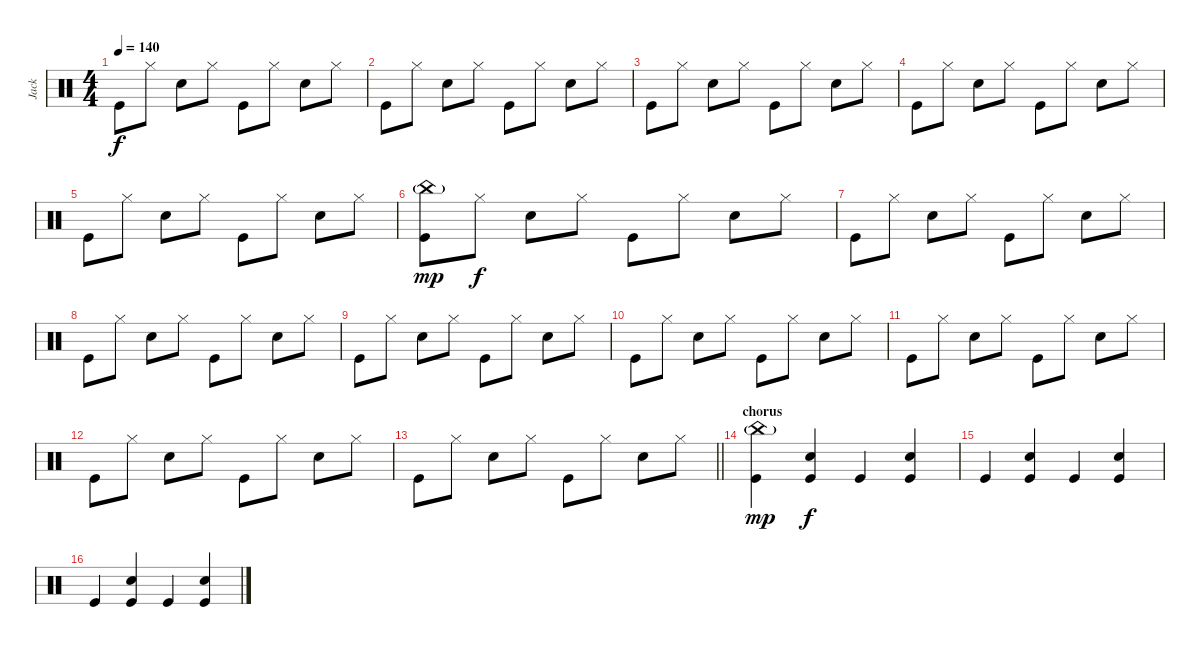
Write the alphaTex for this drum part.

\track ("Jack" "Jack") {instrument percussion}
\staff {score}
\articulation defaults
\ts (4 4)
\tempo 140
\clef neutral
\ks c "Kick (hit)".8{dy f} "Hi-Hat (closed)".8 "Snare (hit) 2".8 "Hi-Hat (closed)".8 "Kick (hit)".8 "Hi-Hat (closed)".8 "Snare (hit) 2".8 "Hi-Hat (closed)".8
|
"Kick (hit)".8 "Hi-Hat (closed)".8 "Snare (hit) 2".8 "Hi-Hat (closed)".8 "Kick (hit)".8 "Hi-Hat (closed)".8 "Snare (hit) 2".8 "Hi-Hat (closed)".8 |
"Kick (hit)".8 "Hi-Hat (closed)".8 "Snare (hit) 2".8 "Hi-Hat (closed)".8 "Kick (hit)".8 "Hi-Hat (closed)".8 "Snare (hit) 2".8 "Hi-Hat (closed)".8 |
"Kick (hit)".8 "Hi-Hat (closed)".8 "Snare (hit) 2".8 "Hi-Hat (closed)".8 "Kick (hit)".8 "Hi-Hat (closed)".8 "Snare (hit) 2".8 "Hi-Hat (closed)".8 |
"Kick (hit)".8 "Hi-Hat (closed)".8 "Snare (hit) 2".8 "Hi-Hat (closed)".8 "Kick (hit)".8 "Hi-Hat (closed)".8 "Snare (hit) 2".8 "Hi-Hat (closed)".8 |
("China (hit)"{g} "Kick (hit)").8{dy mp} "Hi-Hat (closed)".8{dy f} "Snare (hit) 2".8 "Hi-Hat (closed)".8 "Kick (hit)".8 "Hi-Hat (closed)".8 "Snare (hit) 2".8 "Hi-Hat (closed)".8 |
"Kick (hit)".8 "Hi-Hat (closed)".8 "Snare (hit) 2".8 "Hi-Hat (closed)".8 "Kick (hit)".8 "Hi-Hat (closed)".8 "Snare (hit) 2".8 "Hi-Hat (closed)".8 |
"Kick (hit)".8 "Hi-Hat (closed)".8 "Snare (hit) 2".8 "Hi-Hat (closed)".8 "Kick (hit)".8 "Hi-Hat (closed)".8 "Snare (hit) 2".8 "Hi-Hat (closed)".8 |
"Kick (hit)".8 "Hi-Hat (closed)".8 "Snare (hit) 2".8 "Hi-Hat (closed)".8 "Kick (hit)".8 "Hi-Hat (closed)".8 "Snare (hit) 2".8 "Hi-Hat (closed)".8 |
"Kick (hit)".8 "Hi-Hat (closed)".8 "Snare (hit) 2".8 "Hi-Hat (closed)".8 "Kick (hit)".8 "Hi-Hat (closed)".8 "Snare (hit) 2".8 "Hi-Hat (closed)".8 |
"Kick (hit)".8 "Hi-Hat (closed)".8 "Snare (hit) 2".8 "Hi-Hat (closed)".8 "Kick (hit)".8 "Hi-Hat (closed)".8 "Snare (hit) 2".8 "Hi-Hat (closed)".8 |
"Kick (hit)".8 "Hi-Hat (closed)".8 "Snare (hit) 2".8 "Hi-Hat (closed)".8 "Kick (hit)".8 "Hi-Hat (closed)".8 "Snare (hit) 2".8 "Hi-Hat (closed)".8 |
\barLineRight lightlight "Kick (hit)".8 "Hi-Hat (closed)".8 "Snare (hit) 2".8 "Hi-Hat (closed)".8 "Kick (hit)".8 "Hi-Hat (closed)".8 "Snare (hit) 2".8 "Hi-Hat (closed)".8
|
\section ("" "chorus")
("China (hit)"{g} "Kick (hit)").4{dy mp} ("Snare (hit) 2" "Kick (hit)").4{dy f} "Kick (hit)".4 ("Snare (hit) 2" "Kick (hit)").4 |
"Kick (hit)".4 ("Snare (hit) 2" "Kick (hit)").4 "Kick (hit)".4 ("Snare (hit) 2" "Kick (hit)").4 |
"Kick (hit)".4 ("Snare (hit) 2" "Kick (hit)").4 "Kick (hit)".4 ("Snare (hit) 2" "Kick (hit)").4
